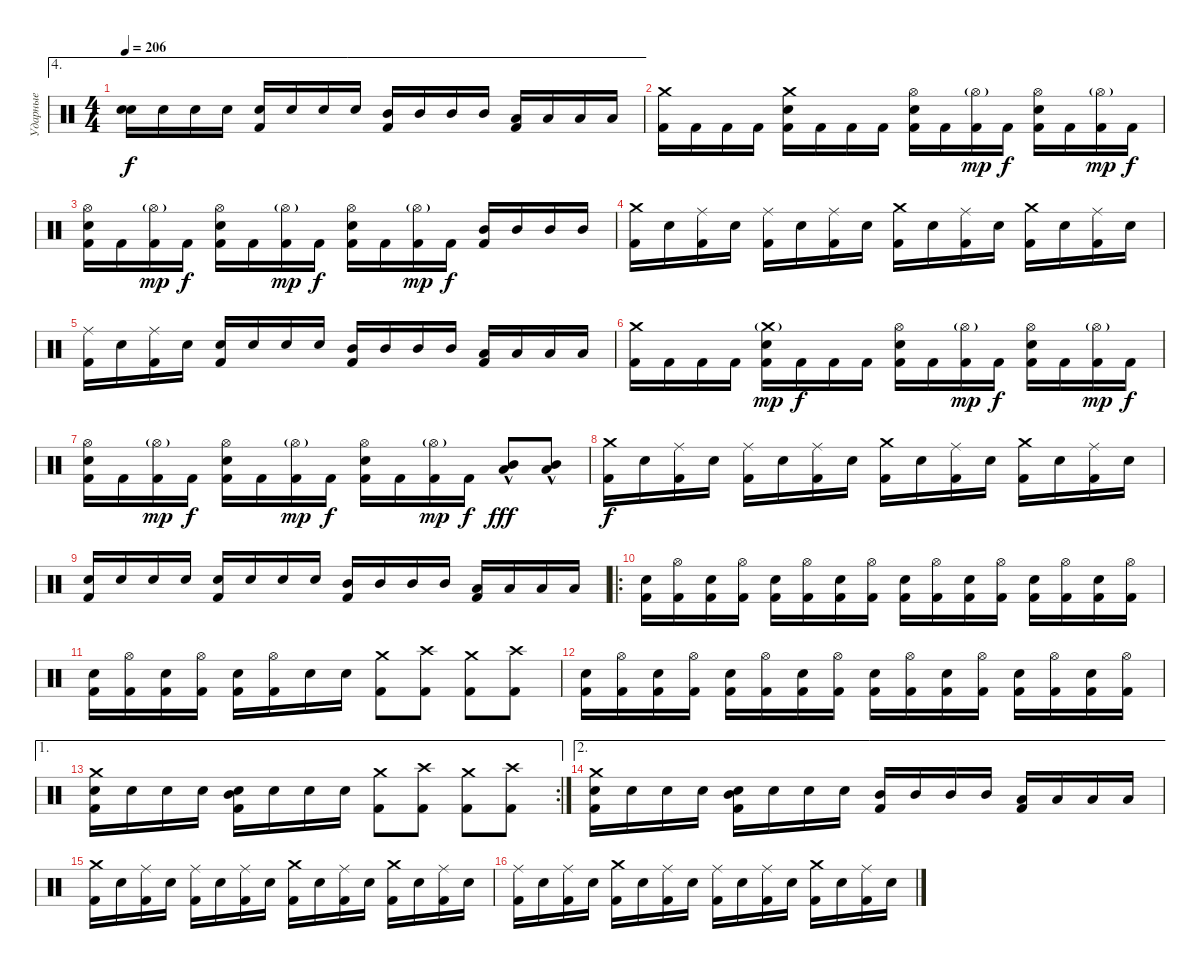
\track ("Ударные" "Ударные") {instrument percussion}
\staff {score}
\articulation defaults
\ae 4
\ts (4 4)
\tempo 206
\clef neutral
\ks c
("Electric Snare (hit)" "Snare (hit)").16{dy f} "Electric Snare (hit)".16 "Electric Snare (hit)".16 "Electric Snare (hit)".16 ("Electric Snare (hit)" "Kick (hit) 2").16 "Electric Snare (hit)".16 "Electric Snare (hit)".16 "Electric Snare (hit)".16 ("Mid Tom (hit)" "Kick (hit) 2").16 "Mid Tom (hit)".16 "Mid Tom (hit)".16 "Mid Tom (hit)".16 ("Low Tom (hit)" "Kick (hit) 2").16 "Low Tom (hit)".16 "Low Tom (hit)".16 "Low Tom (hit)".16 |
("Crash medium (hit)" "Kick (hit) 2").16 "Kick (hit) 2".16 "Kick (hit) 2".16 "Kick (hit) 2".16 ("Crash medium (hit)" "Electric Snare (hit)" "Kick (hit) 2").16 "Kick (hit) 2".16 "Kick (hit) 2".16 "Kick (hit) 2".16 ("Hi-Hat (open)" "Electric Snare (hit)" "Kick (hit) 2").16 "Kick (hit) 2".16 ("Hi-Hat (open)"{g} "Kick (hit) 2").16{dy mp} "Kick (hit) 2".16{dy f} ("Hi-Hat (open)" "Electric Snare (hit)" "Kick (hit) 2").16 "Kick (hit) 2".16 ("Hi-Hat (open)"{g} "Kick (hit) 2").16{dy mp} "Kick (hit) 2".16{dy f} |
("Hi-Hat (open)" "Electric Snare (hit)" "Kick (hit) 2").16 "Kick (hit) 2".16 ("Hi-Hat (open)"{g} "Kick (hit) 2").16{dy mp} "Kick (hit) 2".16{dy f} ("Hi-Hat (open)" "Electric Snare (hit)" "Kick (hit) 2").16 "Kick (hit) 2".16 ("Hi-Hat (open)"{g} "Kick (hit) 2").16{dy mp} "Kick (hit) 2".16{dy f} ("Hi-Hat (open)" "Electric Snare (hit)" "Kick (hit) 2").16 "Kick (hit) 2".16 ("Hi-Hat (open)"{g} "Kick (hit) 2").16{dy mp} "Kick (hit) 2".16{dy f} ("Mid Tom (hit)" "Kick (hit) 2").16 "Mid Tom (hit)".16 "Mid Tom (hit)".16 "Mid Tom (hit)".16 |
("Crash medium (hit)" "Kick (hit) 2").16 "Electric Snare (hit)".16 ("Ride (middle)" "Kick (hit) 2").16 "Electric Snare (hit)".16 ("Ride (middle)" "Kick (hit) 2").16 "Electric Snare (hit)".16 ("Ride (middle)" "Kick (hit) 2").16 "Electric Snare (hit)".16 ("Crash medium (hit)" "Kick (hit) 2").16 "Electric Snare (hit)".16 ("Ride (middle)" "Kick (hit) 2").16 "Electric Snare (hit)".16 ("Crash medium (hit)" "Kick (hit) 2").16 "Electric Snare (hit)".16 ("Ride (middle)" "Kick (hit) 2").16 "Electric Snare (hit)".16 |
("Ride (middle)" "Kick (hit) 2").16 "Electric Snare (hit)".16 ("Ride (middle)" "Kick (hit) 2").16 "Electric Snare (hit)".16 ("Electric Snare (hit)" "Kick (hit) 2").16 "Electric Snare (hit)".16 "Electric Snare (hit)".16 "Electric Snare (hit)".16 ("Mid Tom (hit)" "Kick (hit) 2").16 "Mid Tom (hit)".16 "Mid Tom (hit)".16 "Mid Tom (hit)".16 ("Low Tom (hit)" "Kick (hit) 2").16 "Low Tom (hit)".16 "Low Tom (hit)".16 "Low Tom (hit)".16 |
("Crash medium (hit)" "Kick (hit) 2").16 "Kick (hit) 2".16 "Kick (hit) 2".16 "Kick (hit) 2".16 ("Crash medium (hit)"{g} "Electric Snare (hit)" "Kick (hit) 2").16{dy mp} "Kick (hit) 2".16{dy f} "Kick (hit) 2".16 "Kick (hit) 2".16 ("Hi-Hat (open)" "Electric Snare (hit)" "Kick (hit) 2").16 "Kick (hit) 2".16 ("Hi-Hat (open)"{g} "Kick (hit) 2").16{dy mp} "Kick (hit) 2".16{dy f} ("Hi-Hat (open)" "Electric Snare (hit)" "Kick (hit) 2").16 "Kick (hit) 2".16 ("Hi-Hat (open)"{g} "Kick (hit) 2").16{dy mp} "Kick (hit) 2".16{dy f} |
("Hi-Hat (open)" "Electric Snare (hit)" "Kick (hit) 2").16 "Kick (hit) 2".16 ("Hi-Hat (open)"{g} "Kick (hit) 2").16{dy mp} "Kick (hit) 2".16{dy f} ("Hi-Hat (open)" "Electric Snare (hit)" "Kick (hit) 2").16 "Kick (hit) 2".16 ("Hi-Hat (open)"{g} "Kick (hit) 2").16{dy mp} "Kick (hit) 2".16{dy f} ("Hi-Hat (open)" "Electric Snare (hit)" "Kick (hit) 2").16 "Kick (hit) 2".16 ("Hi-Hat (open)"{g} "Kick (hit) 2").16{dy mp} "Kick (hit) 2".16{dy f} ("Mid Tom (hit)"{hac} "Low Tom (hit)"{hac}).8{dy fff} ("Mid Tom (hit)"{hac} "Low Tom (hit)"{hac}).8 |
("Crash medium (hit)" "Kick (hit) 2").16{dy f} "Electric Snare (hit)".16 ("Ride (middle)" "Kick (hit) 2").16 "Electric Snare (hit)".16 ("Ride (middle)" "Kick (hit) 2").16 "Electric Snare (hit)".16 ("Ride (middle)" "Kick (hit) 2").16 "Electric Snare (hit)".16 ("Crash medium (hit)" "Kick (hit) 2").16 "Electric Snare (hit)".16 ("Ride (middle)" "Kick (hit) 2").16 "Electric Snare (hit)".16 ("Crash medium (hit)" "Kick (hit) 2").16 "Electric Snare (hit)".16 ("Ride (middle)" "Kick (hit) 2").16 "Electric Snare (hit)".16 |
("Electric Snare (hit)" "Kick (hit) 2").16 "Electric Snare (hit)".16 "Electric Snare (hit)".16 "Electric Snare (hit)".16 ("Electric Snare (hit)" "Kick (hit) 2").16 "Electric Snare (hit)".16 "Electric Snare (hit)".16 "Electric Snare (hit)".16 ("Mid Tom (hit)" "Kick (hit) 2").16 "Mid Tom (hit)".16 "Mid Tom (hit)".16 "Mid Tom (hit)".16 ("Low Tom (hit)" "Kick (hit) 2").16 "Low Tom (hit)".16 "Low Tom (hit)".16 "Low Tom (hit)".16 |
\ro
("Electric Snare (hit)" "Kick (hit) 2").16 ("Hi-Hat (open)" "Kick (hit) 2").16 ("Electric Snare (hit)" "Kick (hit) 2").16 ("Hi-Hat (open)" "Kick (hit) 2").16 ("Electric Snare (hit)" "Kick (hit) 2").16 ("Hi-Hat (open)" "Kick (hit) 2").16 ("Electric Snare (hit)" "Kick (hit) 2").16 ("Hi-Hat (open)" "Kick (hit) 2").16 ("Electric Snare (hit)" "Kick (hit) 2").16 ("Hi-Hat (open)" "Kick (hit) 2").16 ("Electric Snare (hit)" "Kick (hit) 2").16 ("Hi-Hat (open)" "Kick (hit) 2").16 ("Electric Snare (hit)" "Kick (hit) 2").16 ("Hi-Hat (open)" "Kick (hit) 2").16 ("Electric Snare (hit)" "Kick (hit) 2").16 ("Hi-Hat (open)" "Kick (hit) 2").16 |
("Electric Snare (hit)" "Kick (hit) 2").16 ("Hi-Hat (open)" "Kick (hit) 2").16 ("Electric Snare (hit)" "Kick (hit) 2").16 ("Hi-Hat (open)" "Kick (hit) 2").16 ("Electric Snare (hit)" "Kick (hit) 2").16 ("Hi-Hat (open)" "Kick (hit) 2").16 "Electric Snare (hit)".16 "Electric Snare (hit)".16 ("Crash medium (hit)" "Kick (hit) 2").8 ("Crash high (hit)" "Kick (hit) 2").8 ("Crash medium (hit)" "Kick (hit) 2").8 ("Crash high (hit)" "Kick (hit) 2").8 |
("Electric Snare (hit)" "Kick (hit) 2").16 ("Hi-Hat (open)" "Kick (hit) 2").16 ("Electric Snare (hit)" "Kick (hit) 2").16 ("Hi-Hat (open)" "Kick (hit) 2").16 ("Electric Snare (hit)" "Kick (hit) 2").16 ("Hi-Hat (open)" "Kick (hit) 2").16 ("Electric Snare (hit)" "Kick (hit) 2").16 ("Hi-Hat (open)" "Kick (hit) 2").16 ("Electric Snare (hit)" "Kick (hit) 2").16 ("Hi-Hat (open)" "Kick (hit) 2").16 ("Electric Snare (hit)" "Kick (hit) 2").16 ("Hi-Hat (open)" "Kick (hit) 2").16 ("Electric Snare (hit)" "Kick (hit) 2").16 ("Hi-Hat (open)" "Kick (hit) 2").16 ("Electric Snare (hit)" "Kick (hit) 2").16 ("Hi-Hat (open)" "Kick (hit) 2").16 |
\ae 1
\rc 2
("Crash medium (hit)" "Electric Snare (hit)" "Kick (hit) 2").16 "Electric Snare (hit)".16 "Electric Snare (hit)".16 "Electric Snare (hit)".16 ("Mid Tom (hit)" "Electric Snare (hit)" "Kick (hit) 2").16 "Electric Snare (hit)".16 "Electric Snare (hit)".16 "Electric Snare (hit)".16 ("Crash medium (hit)" "Kick (hit) 2").8 ("Crash high (hit)" "Kick (hit) 2").8 ("Crash medium (hit)" "Kick (hit) 2").8 ("Crash high (hit)" "Kick (hit) 2").8 |
\ae 2
("Crash medium (hit)" "Electric Snare (hit)" "Kick (hit) 2").16 "Electric Snare (hit)".16 "Electric Snare (hit)".16 "Electric Snare (hit)".16 ("Mid Tom (hit)" "Electric Snare (hit)" "Kick (hit) 2").16 "Electric Snare (hit)".16 "Electric Snare (hit)".16 "Electric Snare (hit)".16 ("Mid Tom (hit)" "Kick (hit) 2").16 "Mid Tom (hit)".16 "Mid Tom (hit)".16 "Mid Tom (hit)".16 ("Low Tom (hit)" "Kick (hit) 2").16 "Low Tom (hit)".16 "Low Tom (hit)".16 "Low Tom (hit)".16 |
("Crash medium (hit)" "Kick (hit) 2").16 "Electric Snare (hit)".16 ("Ride (middle)" "Kick (hit) 2").16 "Electric Snare (hit)".16 ("Ride (middle)" "Kick (hit) 2").16 "Electric Snare (hit)".16 ("Ride (middle)" "Kick (hit) 2").16 "Electric Snare (hit)".16 ("Crash medium (hit)" "Kick (hit) 2").16 "Electric Snare (hit)".16 ("Ride (middle)" "Kick (hit) 2").16 "Electric Snare (hit)".16 ("Crash medium (hit)" "Kick (hit) 2").16 "Electric Snare (hit)".16 ("Ride (middle)" "Kick (hit) 2").16 "Electric Snare (hit)".16 |
("Ride (middle)" "Kick (hit) 2").16 "Electric Snare (hit)".16 ("Ride (middle)" "Kick (hit) 2").16 "Electric Snare (hit)".16 ("Crash medium (hit)" "Kick (hit) 2").16 "Electric Snare (hit)".16 ("Ride (middle)" "Kick (hit) 2").16 "Electric Snare (hit)".16 ("Ride (middle)" "Kick (hit) 2").16 "Electric Snare (hit)".16 ("Ride (middle)" "Kick (hit) 2").16 "Electric Snare (hit)".16 ("Crash medium (hit)" "Kick (hit) 2").16 "Electric Snare (hit)".16 ("Ride (middle)" "Kick (hit) 2").16 "Electric Snare (hit)".16
